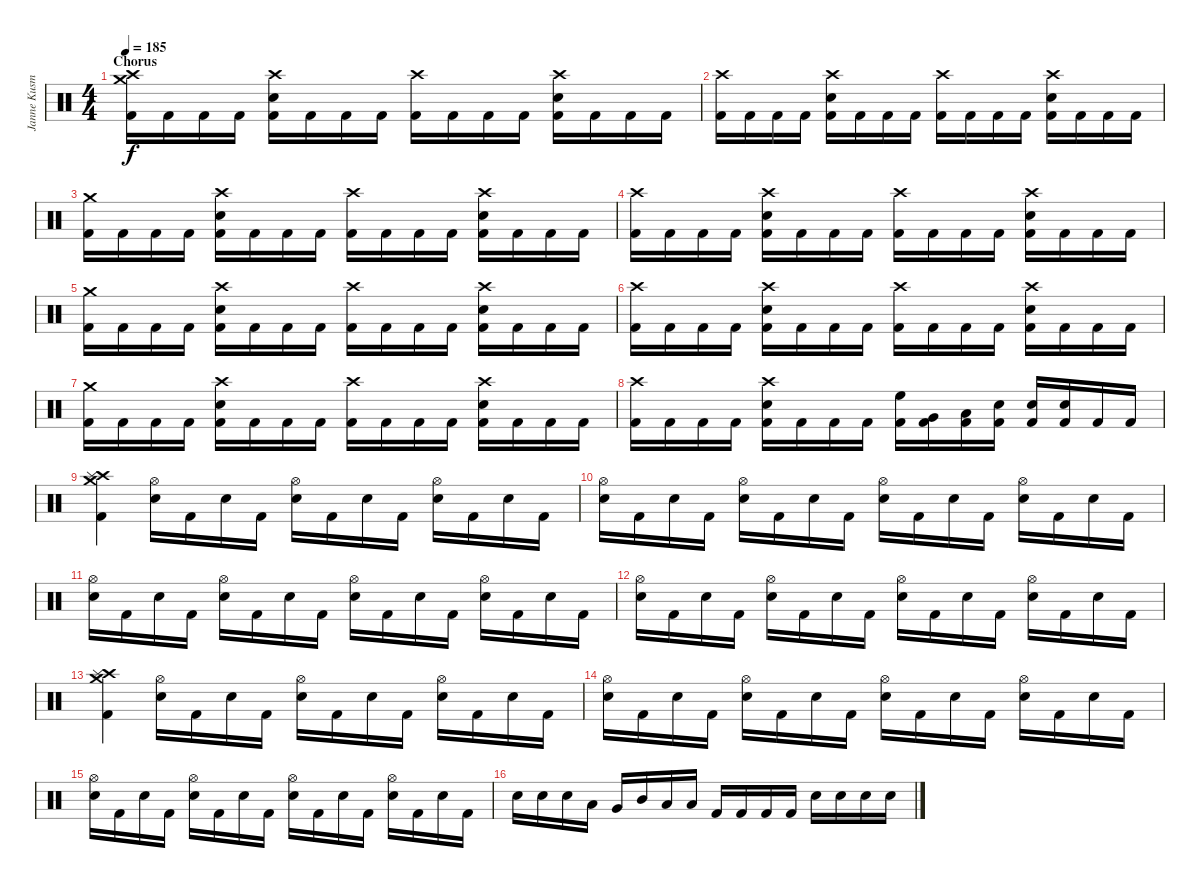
\track ("Janne Kusmin" "Janne Kusm") {instrument percussion}
\staff {score}
\articulation defaults
\ts (4 4)
\section ("" "Chorus")
\tempo 185
\clef neutral
\ks c
("Crash medium (hit)" "Crash high (hit)" "Kick (hit) 2").16{dy f} "Kick (hit) 2".16 "Kick (hit) 2".16 "Kick (hit) 2".16 ("Crash high (hit)" "Electric Snare (hit)" "Kick (hit) 2").16 "Kick (hit) 2".16 "Kick (hit) 2".16 "Kick (hit) 2".16 ("Crash high (hit)" "Kick (hit) 2").16 "Kick (hit) 2".16 "Kick (hit) 2".16 "Kick (hit) 2".16 ("Crash high (hit)" "Electric Snare (hit)" "Kick (hit) 2").16 "Kick (hit) 2".16 "Kick (hit) 2".16 "Kick (hit) 2".16 |
("Crash high (hit)" "Kick (hit) 2").16 "Kick (hit) 2".16 "Kick (hit) 2".16 "Kick (hit) 2".16 ("Crash high (hit)" "Electric Snare (hit)" "Kick (hit) 2").16 "Kick (hit) 2".16 "Kick (hit) 2".16 "Kick (hit) 2".16 ("Crash high (hit)" "Kick (hit) 2").16 "Kick (hit) 2".16 "Kick (hit) 2".16 "Kick (hit) 2".16 ("Crash high (hit)" "Electric Snare (hit)" "Kick (hit) 2").16 "Kick (hit) 2".16 "Kick (hit) 2".16 "Kick (hit) 2".16 |
("Crash medium (hit)" "Kick (hit) 2").16 "Kick (hit) 2".16 "Kick (hit) 2".16 "Kick (hit) 2".16 ("Crash high (hit)" "Electric Snare (hit)" "Kick (hit) 2").16 "Kick (hit) 2".16 "Kick (hit) 2".16 "Kick (hit) 2".16 ("Crash high (hit)" "Kick (hit) 2").16 "Kick (hit) 2".16 "Kick (hit) 2".16 "Kick (hit) 2".16 ("Crash high (hit)" "Electric Snare (hit)" "Kick (hit) 2").16 "Kick (hit) 2".16 "Kick (hit) 2".16 "Kick (hit) 2".16 |
("Crash high (hit)" "Kick (hit) 2").16 "Kick (hit) 2".16 "Kick (hit) 2".16 "Kick (hit) 2".16 ("Crash high (hit)" "Electric Snare (hit)" "Kick (hit) 2").16 "Kick (hit) 2".16 "Kick (hit) 2".16 "Kick (hit) 2".16 ("Crash high (hit)" "Kick (hit) 2").16 "Kick (hit) 2".16 "Kick (hit) 2".16 "Kick (hit) 2".16 ("Crash high (hit)" "Electric Snare (hit)" "Kick (hit) 2").16 "Kick (hit) 2".16 "Kick (hit) 2".16 "Kick (hit) 2".16 |
("Crash medium (hit)" "Kick (hit) 2").16 "Kick (hit) 2".16 "Kick (hit) 2".16 "Kick (hit) 2".16 ("Crash high (hit)" "Electric Snare (hit)" "Kick (hit) 2").16 "Kick (hit) 2".16 "Kick (hit) 2".16 "Kick (hit) 2".16 ("Crash high (hit)" "Kick (hit) 2").16 "Kick (hit) 2".16 "Kick (hit) 2".16 "Kick (hit) 2".16 ("Crash high (hit)" "Electric Snare (hit)" "Kick (hit) 2").16 "Kick (hit) 2".16 "Kick (hit) 2".16 "Kick (hit) 2".16 |
("Crash high (hit)" "Kick (hit) 2").16 "Kick (hit) 2".16 "Kick (hit) 2".16 "Kick (hit) 2".16 ("Crash high (hit)" "Electric Snare (hit)" "Kick (hit) 2").16 "Kick (hit) 2".16 "Kick (hit) 2".16 "Kick (hit) 2".16 ("Crash high (hit)" "Kick (hit) 2").16 "Kick (hit) 2".16 "Kick (hit) 2".16 "Kick (hit) 2".16 ("Crash high (hit)" "Electric Snare (hit)" "Kick (hit) 2").16 "Kick (hit) 2".16 "Kick (hit) 2".16 "Kick (hit) 2".16 |
("Crash medium (hit)" "Kick (hit) 2").16 "Kick (hit) 2".16 "Kick (hit) 2".16 "Kick (hit) 2".16 ("Crash high (hit)" "Electric Snare (hit)" "Kick (hit) 2").16 "Kick (hit) 2".16 "Kick (hit) 2".16 "Kick (hit) 2".16 ("Crash high (hit)" "Kick (hit) 2").16 "Kick (hit) 2".16 "Kick (hit) 2".16 "Kick (hit) 2".16 ("Crash high (hit)" "Electric Snare (hit)" "Kick (hit) 2").16 "Kick (hit) 2".16 "Kick (hit) 2".16 "Kick (hit) 2".16 |
("Crash high (hit)" "Kick (hit) 2").16 "Kick (hit) 2".16 "Kick (hit) 2".16 "Kick (hit) 2".16 ("Crash high (hit)" "Electric Snare (hit)" "Kick (hit) 2").16 "Kick (hit) 2".16 "Kick (hit) 2".16 "Kick (hit) 2".16 ("High Floor Tom (hit)" "Kick (hit) 2").16 ("Very Low Tom (hit)" "Kick (hit) 2").16 ("Low Floor Tom (hit)" "Kick (hit) 2").16 ("Electric Snare (hit)" "Kick (hit) 2").16 ("Electric Snare (hit)" "Kick (hit) 2").16 ("Electric Snare (hit)" "Kick (hit) 2").16 "Kick (hit) 2".16 "Kick (hit) 2".16 |
("Crash medium (hit)" "Crash high (hit)" "Splash (hit)" "Kick (hit) 2").4 ("Hi-Hat (open)" "Electric Snare (hit)").16 "Kick (hit) 2".16 "Electric Snare (hit)".16 "Kick (hit) 2".16 ("Hi-Hat (open)" "Electric Snare (hit)").16 "Kick (hit) 2".16 "Electric Snare (hit)".16 "Kick (hit) 2".16 ("Hi-Hat (open)" "Electric Snare (hit)").16 "Kick (hit) 2".16 "Electric Snare (hit)".16 "Kick (hit) 2".16 |
("Hi-Hat (open)" "Electric Snare (hit)").16 "Kick (hit) 2".16 "Electric Snare (hit)".16 "Kick (hit) 2".16 ("Hi-Hat (open)" "Electric Snare (hit)").16 "Kick (hit) 2".16 "Electric Snare (hit)".16 "Kick (hit) 2".16 ("Hi-Hat (open)" "Electric Snare (hit)").16 "Kick (hit) 2".16 "Electric Snare (hit)".16 "Kick (hit) 2".16 ("Hi-Hat (open)" "Electric Snare (hit)").16 "Kick (hit) 2".16 "Electric Snare (hit)".16 "Kick (hit) 2".16 |
("Hi-Hat (open)" "Electric Snare (hit)").16 "Kick (hit) 2".16 "Electric Snare (hit)".16 "Kick (hit) 2".16 ("Hi-Hat (open)" "Electric Snare (hit)").16 "Kick (hit) 2".16 "Electric Snare (hit)".16 "Kick (hit) 2".16 ("Hi-Hat (open)" "Electric Snare (hit)").16 "Kick (hit) 2".16 "Electric Snare (hit)".16 "Kick (hit) 2".16 ("Hi-Hat (open)" "Electric Snare (hit)").16 "Kick (hit) 2".16 "Electric Snare (hit)".16 "Kick (hit) 2".16 |
("Hi-Hat (open)" "Electric Snare (hit)").16 "Kick (hit) 2".16 "Electric Snare (hit)".16 "Kick (hit) 2".16 ("Hi-Hat (open)" "Electric Snare (hit)").16 "Kick (hit) 2".16 "Electric Snare (hit)".16 "Kick (hit) 2".16 ("Hi-Hat (open)" "Electric Snare (hit)").16 "Kick (hit) 2".16 "Electric Snare (hit)".16 "Kick (hit) 2".16 ("Hi-Hat (open)" "Electric Snare (hit)").16 "Kick (hit) 2".16 "Electric Snare (hit)".16 "Kick (hit) 2".16 |
("Crash medium (hit)" "Crash high (hit)" "Splash (hit)" "Kick (hit) 2").4 ("Hi-Hat (open)" "Electric Snare (hit)").16 "Kick (hit) 2".16 "Electric Snare (hit)".16 "Kick (hit) 2".16 ("Hi-Hat (open)" "Electric Snare (hit)").16 "Kick (hit) 2".16 "Electric Snare (hit)".16 "Kick (hit) 2".16 ("Hi-Hat (open)" "Electric Snare (hit)").16 "Kick (hit) 2".16 "Electric Snare (hit)".16 "Kick (hit) 2".16 |
("Hi-Hat (open)" "Electric Snare (hit)").16 "Kick (hit) 2".16 "Electric Snare (hit)".16 "Kick (hit) 2".16 ("Hi-Hat (open)" "Electric Snare (hit)").16 "Kick (hit) 2".16 "Electric Snare (hit)".16 "Kick (hit) 2".16 ("Hi-Hat (open)" "Electric Snare (hit)").16 "Kick (hit) 2".16 "Electric Snare (hit)".16 "Kick (hit) 2".16 ("Hi-Hat (open)" "Electric Snare (hit)").16 "Kick (hit) 2".16 "Electric Snare (hit)".16 "Kick (hit) 2".16 |
("Hi-Hat (open)" "Electric Snare (hit)").16 "Kick (hit) 2".16 "Electric Snare (hit)".16 "Kick (hit) 2".16 ("Hi-Hat (open)" "Electric Snare (hit)").16 "Kick (hit) 2".16 "Electric Snare (hit)".16 "Kick (hit) 2".16 ("Hi-Hat (open)" "Electric Snare (hit)").16 "Kick (hit) 2".16 "Electric Snare (hit)".16 "Kick (hit) 2".16 ("Hi-Hat (open)" "Electric Snare (hit)").16 "Kick (hit) 2".16 "Electric Snare (hit)".16 "Kick (hit) 2".16 |
"Electric Snare (hit)".16 "Electric Snare (hit)".16 "Electric Snare (hit)".16 "Low Tom (hit)".16 "Very Low Tom (hit)".16 "Mid Tom (hit)".16 "Low Tom (hit)".16 "Low Floor Tom (hit)".16 "Kick (hit) 2".16 "Kick (hit) 2".16 "Kick (hit) 2".16 "Kick (hit) 2".16 "Electric Snare (hit)".16 "Electric Snare (hit)".16 "Electric Snare (hit)".16 "Electric Snare (hit)".16
